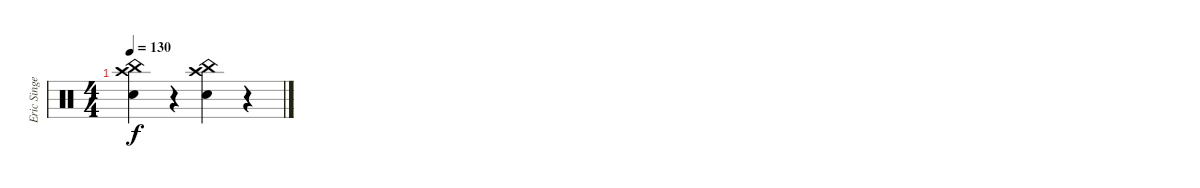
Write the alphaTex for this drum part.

\track ("Eric Singer" "Eric Singe") {instrument percussion}
\staff {score}
\articulation defaults
\ts (4 4)
\tempo 130
\clef neutral
\ks c
("Electric Snare (hit)" "Crash high (hit)" "China (hit)").4{dy f} r.4 ("Electric Snare (hit)" "Crash high (hit)" "China (hit)").4 r.4
